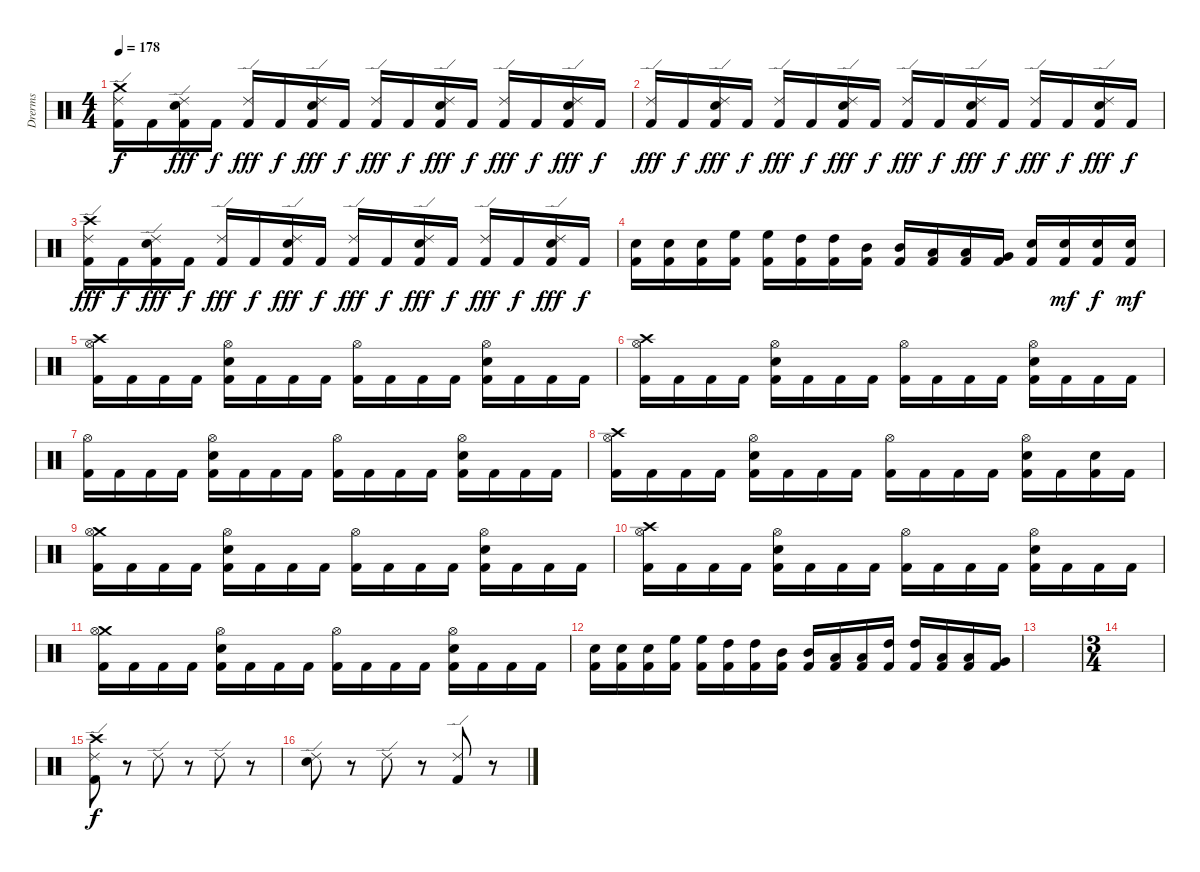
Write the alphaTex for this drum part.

\track ("Drerms" "Drerms") {instrument percussion}
\staff {score}
\articulation defaults
\ts (4 4)
\tempo 178
\clef neutral
\ks c
("Crash medium (hit)" "Ride (edge) 2" "Kick (hit) 2").16{dy f} "Kick (hit) 2".16 ("Snare (hit) 2" "Ride (edge) 2" "Kick (hit) 2").16{dy fff} "Kick (hit) 2".16{dy f} ("Ride (edge) 2" "Kick (hit) 2").16{dy fff} "Kick (hit) 2".16{dy f} ("Snare (hit) 2" "Ride (edge) 2" "Kick (hit) 2").16{dy fff} "Kick (hit) 2".16{dy f} ("Ride (edge) 2" "Kick (hit) 2").16{dy fff} "Kick (hit) 2".16{dy f} ("Snare (hit) 2" "Ride (edge) 2" "Kick (hit) 2").16{dy fff} "Kick (hit) 2".16{dy f} ("Ride (edge) 2" "Kick (hit) 2").16{dy fff} "Kick (hit) 2".16{dy f} ("Snare (hit) 2" "Ride (edge) 2" "Kick (hit) 2").16{dy fff} "Kick (hit) 2".16{dy f} |
("Ride (edge) 2" "Kick (hit) 2").16{dy fff} "Kick (hit) 2".16{dy f} ("Snare (hit) 2" "Ride (edge) 2" "Kick (hit) 2").16{dy fff} "Kick (hit) 2".16{dy f} ("Ride (edge) 2" "Kick (hit) 2").16{dy fff} "Kick (hit) 2".16{dy f} ("Snare (hit) 2" "Ride (edge) 2" "Kick (hit) 2").16{dy fff} "Kick (hit) 2".16{dy f} ("Ride (edge) 2" "Kick (hit) 2").16{dy fff} "Kick (hit) 2".16{dy f} ("Snare (hit) 2" "Ride (edge) 2" "Kick (hit) 2").16{dy fff} "Kick (hit) 2".16{dy f} ("Ride (edge) 2" "Kick (hit) 2").16{dy fff} "Kick (hit) 2".16{dy f} ("Snare (hit) 2" "Ride (edge) 2" "Kick (hit) 2").16{dy fff} "Kick (hit) 2".16{dy f} |
("Crash high (hit)" "Ride (edge) 2" "Kick (hit) 2").16{dy fff} "Kick (hit) 2".16{dy f} ("Snare (hit) 2" "Ride (edge) 2" "Kick (hit) 2").16{dy fff} "Kick (hit) 2".16{dy f} ("Ride (edge) 2" "Kick (hit) 2").16{dy fff} "Kick (hit) 2".16{dy f} ("Snare (hit) 2" "Ride (edge) 2" "Kick (hit) 2").16{dy fff} "Kick (hit) 2".16{dy f} ("Ride (edge) 2" "Kick (hit) 2").16{dy fff} "Kick (hit) 2".16{dy f} ("Snare (hit) 2" "Ride (edge) 2" "Kick (hit) 2").16{dy fff} "Kick (hit) 2".16{dy f} ("Ride (edge) 2" "Kick (hit) 2").16{dy fff} "Kick (hit) 2".16{dy f} ("Snare (hit) 2" "Ride (edge) 2" "Kick (hit) 2").16{dy fff} "Kick (hit) 2".16{dy f} |
("Snare (hit) 2" "Kick (hit) 2").16 ("Snare (hit) 2" "Kick (hit) 2").16 ("Snare (hit) 2" "Kick (hit) 2").16 ("High Floor Tom (hit)" "Kick (hit) 2").16 ("High Floor Tom (hit)" "Kick (hit) 2").16 ("High Tom (hit)" "Kick (hit) 2").16 ("High Tom (hit)" "Kick (hit) 2").16 ("Mid Tom (hit)" "Kick (hit) 2").16 ("Mid Tom (hit)" "Kick (hit) 2").16 ("Low Tom (hit)" "Kick (hit) 2").16 ("Low Tom (hit)" "Kick (hit) 2").16 ("Very Low Tom (hit)" "Kick (hit) 2").16 ("Snare (hit) 2" "Kick (hit) 2").16 ("Snare (hit) 2" "Kick (hit) 2").16{dy mf} ("Snare (hit) 2" "Kick (hit) 2").16{dy f} ("Snare (hit) 2" "Kick (hit) 2").16{dy mf} |
("Crash high (hit)" "Hi-Hat (open)" "Kick (hit) 2").16 "Kick (hit) 2".16 "Kick (hit) 2".16 "Kick (hit) 2".16 ("Snare (hit) 2" "Hi-Hat (open)" "Kick (hit) 2").16 "Kick (hit) 2".16 "Kick (hit) 2".16 "Kick (hit) 2".16 ("Hi-Hat (open)" "Kick (hit) 2").16 "Kick (hit) 2".16 "Kick (hit) 2".16 "Kick (hit) 2".16 ("Snare (hit) 2" "Hi-Hat (open)" "Kick (hit) 2").16 "Kick (hit) 2".16 "Kick (hit) 2".16 "Kick (hit) 2".16 |
("Crash high (hit)" "Hi-Hat (open)" "Kick (hit) 2").16 "Kick (hit) 2".16 "Kick (hit) 2".16 "Kick (hit) 2".16 ("Snare (hit) 2" "Hi-Hat (open)" "Kick (hit) 2").16 "Kick (hit) 2".16 "Kick (hit) 2".16 "Kick (hit) 2".16 ("Hi-Hat (open)" "Kick (hit) 2").16 "Kick (hit) 2".16 "Kick (hit) 2".16 "Kick (hit) 2".16 ("Snare (hit) 2" "Hi-Hat (open)" "Kick (hit) 2").16 "Kick (hit) 2".16 "Kick (hit) 2".16 "Kick (hit) 2".16 |
("Hi-Hat (open)" "Kick (hit) 2").16 "Kick (hit) 2".16 "Kick (hit) 2".16 "Kick (hit) 2".16 ("Snare (hit) 2" "Hi-Hat (open)" "Kick (hit) 2").16 "Kick (hit) 2".16 "Kick (hit) 2".16 "Kick (hit) 2".16 ("Hi-Hat (open)" "Kick (hit) 2").16 "Kick (hit) 2".16 "Kick (hit) 2".16 "Kick (hit) 2".16 ("Snare (hit) 2" "Hi-Hat (open)" "Kick (hit) 2").16 "Kick (hit) 2".16 "Kick (hit) 2".16 "Kick (hit) 2".16 |
("Crash high (hit)" "Hi-Hat (open)" "Kick (hit) 2").16 "Kick (hit) 2".16 "Kick (hit) 2".16 "Kick (hit) 2".16 ("Snare (hit) 2" "Hi-Hat (open)" "Kick (hit) 2").16 "Kick (hit) 2".16 "Kick (hit) 2".16 "Kick (hit) 2".16 ("Hi-Hat (open)" "Kick (hit) 2").16 "Kick (hit) 2".16 "Kick (hit) 2".16 "Kick (hit) 2".16 ("Snare (hit) 2" "Hi-Hat (open)" "Kick (hit) 2").16 "Kick (hit) 2".16 ("Snare (hit) 2" "Kick (hit) 2").16 "Kick (hit) 2".16 |
("Crash medium (hit)" "Hi-Hat (open)" "Kick (hit) 2").16 "Kick (hit) 2".16 "Kick (hit) 2".16 "Kick (hit) 2".16 ("Snare (hit) 2" "Hi-Hat (open)" "Kick (hit) 2").16 "Kick (hit) 2".16 "Kick (hit) 2".16 "Kick (hit) 2".16 ("Hi-Hat (open)" "Kick (hit) 2").16 "Kick (hit) 2".16 "Kick (hit) 2".16 "Kick (hit) 2".16 ("Snare (hit) 2" "Hi-Hat (open)" "Kick (hit) 2").16 "Kick (hit) 2".16 "Kick (hit) 2".16 "Kick (hit) 2".16 |
("Crash high (hit)" "Hi-Hat (open)" "Kick (hit) 2").16 "Kick (hit) 2".16 "Kick (hit) 2".16 "Kick (hit) 2".16 ("Snare (hit) 2" "Hi-Hat (open)" "Kick (hit) 2").16 "Kick (hit) 2".16 "Kick (hit) 2".16 "Kick (hit) 2".16 ("Hi-Hat (open)" "Kick (hit) 2").16 "Kick (hit) 2".16 "Kick (hit) 2".16 "Kick (hit) 2".16 ("Snare (hit) 2" "Hi-Hat (open)" "Kick (hit) 2").16 "Kick (hit) 2".16 "Kick (hit) 2".16 "Kick (hit) 2".16 |
("Crash medium (hit)" "Hi-Hat (open)" "Kick (hit) 2").16 "Kick (hit) 2".16 "Kick (hit) 2".16 "Kick (hit) 2".16 ("Snare (hit) 2" "Hi-Hat (open)" "Kick (hit) 2").16 "Kick (hit) 2".16 "Kick (hit) 2".16 "Kick (hit) 2".16 ("Hi-Hat (open)" "Kick (hit) 2").16 "Kick (hit) 2".16 "Kick (hit) 2".16 "Kick (hit) 2".16 ("Snare (hit) 2" "Hi-Hat (open)" "Kick (hit) 2").16 "Kick (hit) 2".16 "Kick (hit) 2".16 "Kick (hit) 2".16 |
("Snare (hit) 2" "Kick (hit) 2").16 ("Snare (hit) 2" "Kick (hit) 2").16 ("Snare (hit) 2" "Kick (hit) 2").16 ("High Floor Tom (hit)" "Kick (hit) 2").16 ("High Floor Tom (hit)" "Kick (hit) 2").16 ("High Tom (hit)" "Kick (hit) 2").16 ("High Tom (hit)" "Kick (hit) 2").16 ("Mid Tom (hit)" "Kick (hit) 2").16 ("Mid Tom (hit)" "Kick (hit) 2").16 ("Low Tom (hit)" "Kick (hit) 2").16 ("Low Tom (hit)" "Kick (hit) 2").16 ("High Tom (hit)" "Kick (hit) 2").16 ("High Tom (hit)" "Kick (hit) 2").16 ("Low Tom (hit)" "Kick (hit) 2").16 ("Low Tom (hit)" "Kick (hit) 2").16 ("Very Low Tom (hit)" "Kick (hit) 2").16 |
|
\ts (3 4)
|
("Crash high (hit)" "Ride (edge) 2" "Kick (hit) 2").8{dy f} r.8 "Ride (edge) 2".8 r.8 "Ride (edge) 2".8 r.8 |
("Snare (hit) 2" "Ride (edge) 2").8 r.8 "Ride (edge) 2".8 r.8 ("Ride (edge) 2" "Kick (hit) 2").8 r.8
